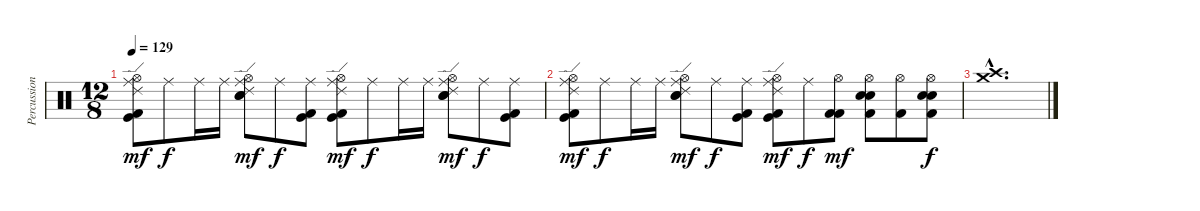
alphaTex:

\track ("Percussion" "Percussion") {instrument percussion}
\staff {score}
\articulation defaults
\ts (12 8)
\tempo 129
\clef neutral
\ks c
("Ride (edge) 2" "Ride (middle)" "Hi-Hat (open)" "Kick (hit) 2" "Kick (hit)").8{dy mf} "Ride (middle)".8{dy f} "Ride (middle)".16 "Ride (middle)".16 ("Ride (edge) 2" "Ride (middle)" "Electric Snare (hit)" "Electric Snare (hit)" "Hi-Hat (open)").8{dy mf} "Ride (middle)".8{dy f} ("Ride (middle)" "Kick (hit) 2" "Kick (hit)").8 ("Ride (edge) 2" "Ride (middle)" "Hi-Hat (open)" "Kick (hit) 2" "Kick (hit)").8{dy mf} "Ride (middle)".8{dy f} "Ride (middle)".16 "Ride (middle)".16 ("Ride (edge) 2" "Ride (middle)" "Electric Snare (hit)" "Electric Snare (hit)" "Hi-Hat (open)").8{dy mf} "Ride (middle)".8{dy f} ("Ride (middle)" "Kick (hit) 2" "Kick (hit)").8 |
("Ride (edge) 2" "Ride (middle)" "Hi-Hat (open)" "Kick (hit) 2" "Kick (hit)").8{dy mf} "Ride (middle)".8{dy f} "Ride (middle)".16 "Ride (middle)".16 ("Ride (edge) 2" "Ride (middle)" "Electric Snare (hit)" "Electric Snare (hit)" "Hi-Hat (open)").8{dy mf} "Ride (middle)".8{dy f} ("Ride (middle)" "Kick (hit) 2" "Kick (hit)").8 ("Ride (edge) 2" "Ride (middle)" "Hi-Hat (open)" "Kick (hit) 2" "Kick (hit)").8{dy mf} "Ride (middle)".8{dy f} ("Hi-Hat (open)" "Kick (hit) 2" "Kick (hit) 2").8{dy mf} ("Hi-Hat (open)" "Electric Snare (hit)" "Electric Snare (hit)" "Kick (hit) 2").8 ("Hi-Hat (open)" "Kick (hit) 2").8 ("Hi-Hat (open)" "Electric Snare (hit)" "Electric Snare (hit)" "Kick (hit) 2").8{dy f} |
("Crash high (hit)"{hac} "Crash medium (hit)"{hac}).1{d}
